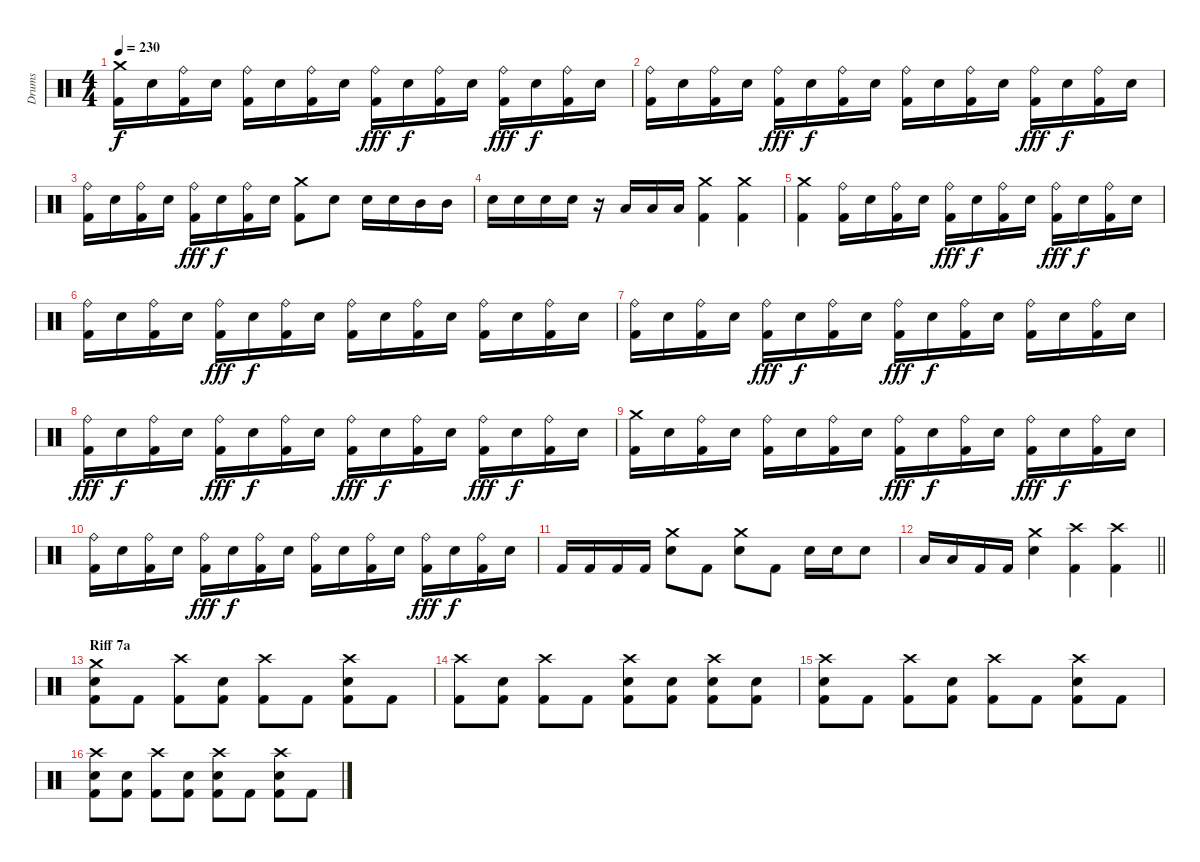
\track ("Drums" "Drums") {instrument percussion}
\staff {score}
\articulation defaults
\ts (4 4)
\tempo 230
\clef neutral
\ks c
("Crash medium (hit)" "Kick (hit) 2").16{dy f} "Electric Snare (hit)".16 ("Ride (bell)" "Kick (hit) 2").16 "Electric Snare (hit)".16 ("Ride (bell)" "Kick (hit) 2").16 "Electric Snare (hit)".16 ("Ride (bell)" "Kick (hit) 2").16 "Electric Snare (hit)".16 ("Ride (bell)" "Kick (hit) 2").16{dy fff} "Electric Snare (hit)".16{dy f} ("Ride (bell)" "Kick (hit) 2").16 "Electric Snare (hit)".16 ("Ride (bell)" "Kick (hit) 2").16{dy fff} "Electric Snare (hit)".16{dy f} ("Ride (bell)" "Kick (hit) 2").16 "Electric Snare (hit)".16 |
("Ride (bell)" "Kick (hit) 2").16 "Electric Snare (hit)".16 ("Ride (bell)" "Kick (hit) 2").16 "Electric Snare (hit)".16 ("Ride (bell)" "Kick (hit) 2").16{dy fff} "Electric Snare (hit)".16{dy f} ("Ride (bell)" "Kick (hit) 2").16 "Electric Snare (hit)".16 ("Ride (bell)" "Kick (hit) 2").16 "Electric Snare (hit)".16 ("Ride (bell)" "Kick (hit) 2").16 "Electric Snare (hit)".16 ("Ride (bell)" "Kick (hit) 2").16{dy fff} "Electric Snare (hit)".16{dy f} ("Ride (bell)" "Kick (hit) 2").16 "Electric Snare (hit)".16 |
("Ride (bell)" "Kick (hit) 2").16 "Electric Snare (hit)".16 ("Ride (bell)" "Kick (hit) 2").16 "Electric Snare (hit)".16 ("Ride (bell)" "Kick (hit) 2").16{dy fff} "Electric Snare (hit)".16{dy f} ("Ride (bell)" "Kick (hit) 2").16 "Electric Snare (hit)".16 ("Crash medium (hit)" "Kick (hit) 2").8 "Electric Snare (hit)".8 "Electric Snare (hit)".16 "Electric Snare (hit)".16 "Mid Tom (hit)".16 "Mid Tom (hit)".16 |
"Electric Snare (hit)".16 "Electric Snare (hit)".16 "Electric Snare (hit)".16 "Electric Snare (hit)".16 r.16 "Low Tom (hit)".16 "Low Tom (hit)".16 "Low Tom (hit)".16 ("Kick (hit) 2" "Crash medium (hit)").4 ("Kick (hit) 2" "Crash medium (hit)").4 |
("Kick (hit) 2" "Crash medium (hit)").4 ("Ride (bell)" "Kick (hit) 2").16 "Electric Snare (hit)".16 ("Ride (bell)" "Kick (hit) 2").16 "Electric Snare (hit)".16 ("Ride (bell)" "Kick (hit) 2").16{dy fff} "Electric Snare (hit)".16{dy f} ("Ride (bell)" "Kick (hit) 2").16 "Electric Snare (hit)".16 ("Ride (bell)" "Kick (hit) 2").16{dy fff} "Electric Snare (hit)".16{dy f} ("Ride (bell)" "Kick (hit) 2").16 "Electric Snare (hit)".16 |
("Ride (bell)" "Kick (hit) 2").16 "Electric Snare (hit)".16 ("Ride (bell)" "Kick (hit) 2").16 "Electric Snare (hit)".16 ("Ride (bell)" "Kick (hit) 2").16{dy fff} "Electric Snare (hit)".16{dy f} ("Ride (bell)" "Kick (hit) 2").16 "Electric Snare (hit)".16 ("Ride (bell)" "Kick (hit) 2").16 "Electric Snare (hit)".16 ("Ride (bell)" "Kick (hit) 2").16 "Electric Snare (hit)".16 ("Ride (bell)" "Kick (hit) 2").16 "Electric Snare (hit)".16 ("Ride (bell)" "Kick (hit) 2").16 "Electric Snare (hit)".16 |
("Ride (bell)" "Kick (hit) 2").16 "Electric Snare (hit)".16 ("Ride (bell)" "Kick (hit) 2").16 "Electric Snare (hit)".16 ("Ride (bell)" "Kick (hit) 2").16{dy fff} "Electric Snare (hit)".16{dy f} ("Ride (bell)" "Kick (hit) 2").16 "Electric Snare (hit)".16 ("Ride (bell)" "Kick (hit) 2").16{dy fff} "Electric Snare (hit)".16{dy f} ("Ride (bell)" "Kick (hit) 2").16 "Electric Snare (hit)".16 ("Ride (bell)" "Kick (hit) 2").16 "Electric Snare (hit)".16 ("Ride (bell)" "Kick (hit) 2").16 "Electric Snare (hit)".16 |
("Ride (bell)" "Kick (hit) 2").16{dy fff} "Electric Snare (hit)".16{dy f} ("Ride (bell)" "Kick (hit) 2").16 "Electric Snare (hit)".16 ("Ride (bell)" "Kick (hit) 2").16{dy fff} "Electric Snare (hit)".16{dy f} ("Ride (bell)" "Kick (hit) 2").16 "Electric Snare (hit)".16 ("Ride (bell)" "Kick (hit) 2").16{dy fff} "Electric Snare (hit)".16{dy f} ("Ride (bell)" "Kick (hit) 2").16 "Electric Snare (hit)".16 ("Ride (bell)" "Kick (hit) 2").16{dy fff} "Electric Snare (hit)".16{dy f} ("Ride (bell)" "Kick (hit) 2").16 "Electric Snare (hit)".16 |
("Crash medium (hit)" "Kick (hit) 2").16 "Electric Snare (hit)".16 ("Ride (bell)" "Kick (hit) 2").16 "Electric Snare (hit)".16 ("Ride (bell)" "Kick (hit) 2").16 "Electric Snare (hit)".16 ("Ride (bell)" "Kick (hit) 2").16 "Electric Snare (hit)".16 ("Ride (bell)" "Kick (hit) 2").16{dy fff} "Electric Snare (hit)".16{dy f} ("Ride (bell)" "Kick (hit) 2").16 "Electric Snare (hit)".16 ("Ride (bell)" "Kick (hit) 2").16{dy fff} "Electric Snare (hit)".16{dy f} ("Ride (bell)" "Kick (hit) 2").16 "Electric Snare (hit)".16 |
("Ride (bell)" "Kick (hit) 2").16 "Electric Snare (hit)".16 ("Ride (bell)" "Kick (hit) 2").16 "Electric Snare (hit)".16 ("Ride (bell)" "Kick (hit) 2").16{dy fff} "Electric Snare (hit)".16{dy f} ("Ride (bell)" "Kick (hit) 2").16 "Electric Snare (hit)".16 ("Ride (bell)" "Kick (hit) 2").16 "Electric Snare (hit)".16 ("Ride (bell)" "Kick (hit) 2").16 "Electric Snare (hit)".16 ("Ride (bell)" "Kick (hit) 2").16{dy fff} "Electric Snare (hit)".16{dy f} ("Ride (bell)" "Kick (hit) 2").16 "Electric Snare (hit)".16 |
"Kick (hit) 2".16 "Kick (hit) 2".16 "Kick (hit) 2".16 "Kick (hit) 2".16 ("Electric Snare (hit)" "Crash medium (hit)").8 "Kick (hit) 2".8 ("Electric Snare (hit)" "Crash medium (hit)").8 "Kick (hit) 2".8 "Electric Snare (hit)".16 "Electric Snare (hit)".16 "Electric Snare (hit)".8 |
\barLineRight lightlight "Low Tom (hit)".16 "Low Tom (hit)".16 "Kick (hit) 2".16 "Kick (hit) 2".16
("Electric Snare (hit)" "Crash medium (hit)").4 ("Kick (hit) 2" "Crash high (hit)").4 ("Kick (hit) 2" "Crash high (hit)").4 |
\section ("" "Riff 7a")
("Crash medium (hit)" "Kick (hit) 2" "Electric Snare (hit)").8 "Kick (hit) 2".8 ("Crash high (hit)" "Kick (hit) 2").8 ("Electric Snare (hit)" "Kick (hit) 2").8 ("Crash high (hit)" "Kick (hit) 2").8 "Kick (hit) 2".8 ("Crash high (hit)" "Kick (hit) 2" "Electric Snare (hit)").8 "Kick (hit) 2".8 |
("Kick (hit) 2" "Crash high (hit)").8 ("Kick (hit) 2" "Electric Snare (hit)").8 ("Kick (hit) 2" "Crash high (hit)").8 "Kick (hit) 2".8 ("Kick (hit) 2" "Crash high (hit)" "Electric Snare (hit)").8 ("Kick (hit) 2" "Electric Snare (hit)").8 ("Kick (hit) 2" "Crash high (hit)" "Electric Snare (hit)").8 ("Kick (hit) 2" "Electric Snare (hit)").8 |
("Crash high (hit)" "Kick (hit) 2" "Electric Snare (hit)").8 "Kick (hit) 2".8 ("Crash high (hit)" "Kick (hit) 2").8 ("Electric Snare (hit)" "Kick (hit) 2").8 ("Crash high (hit)" "Kick (hit) 2").8 "Kick (hit) 2".8 ("Crash high (hit)" "Kick (hit) 2" "Electric Snare (hit)").8 "Kick (hit) 2".8 |
("Kick (hit) 2" "Crash high (hit)" "Electric Snare (hit)").8 ("Kick (hit) 2" "Electric Snare (hit)").8 ("Kick (hit) 2" "Crash high (hit)").8 ("Kick (hit) 2" "Electric Snare (hit)").8 ("Kick (hit) 2" "Crash high (hit)" "Electric Snare (hit)").8 "Kick (hit) 2".8 ("Kick (hit) 2" "Crash high (hit)" "Electric Snare (hit)").8 "Kick (hit) 2".8
